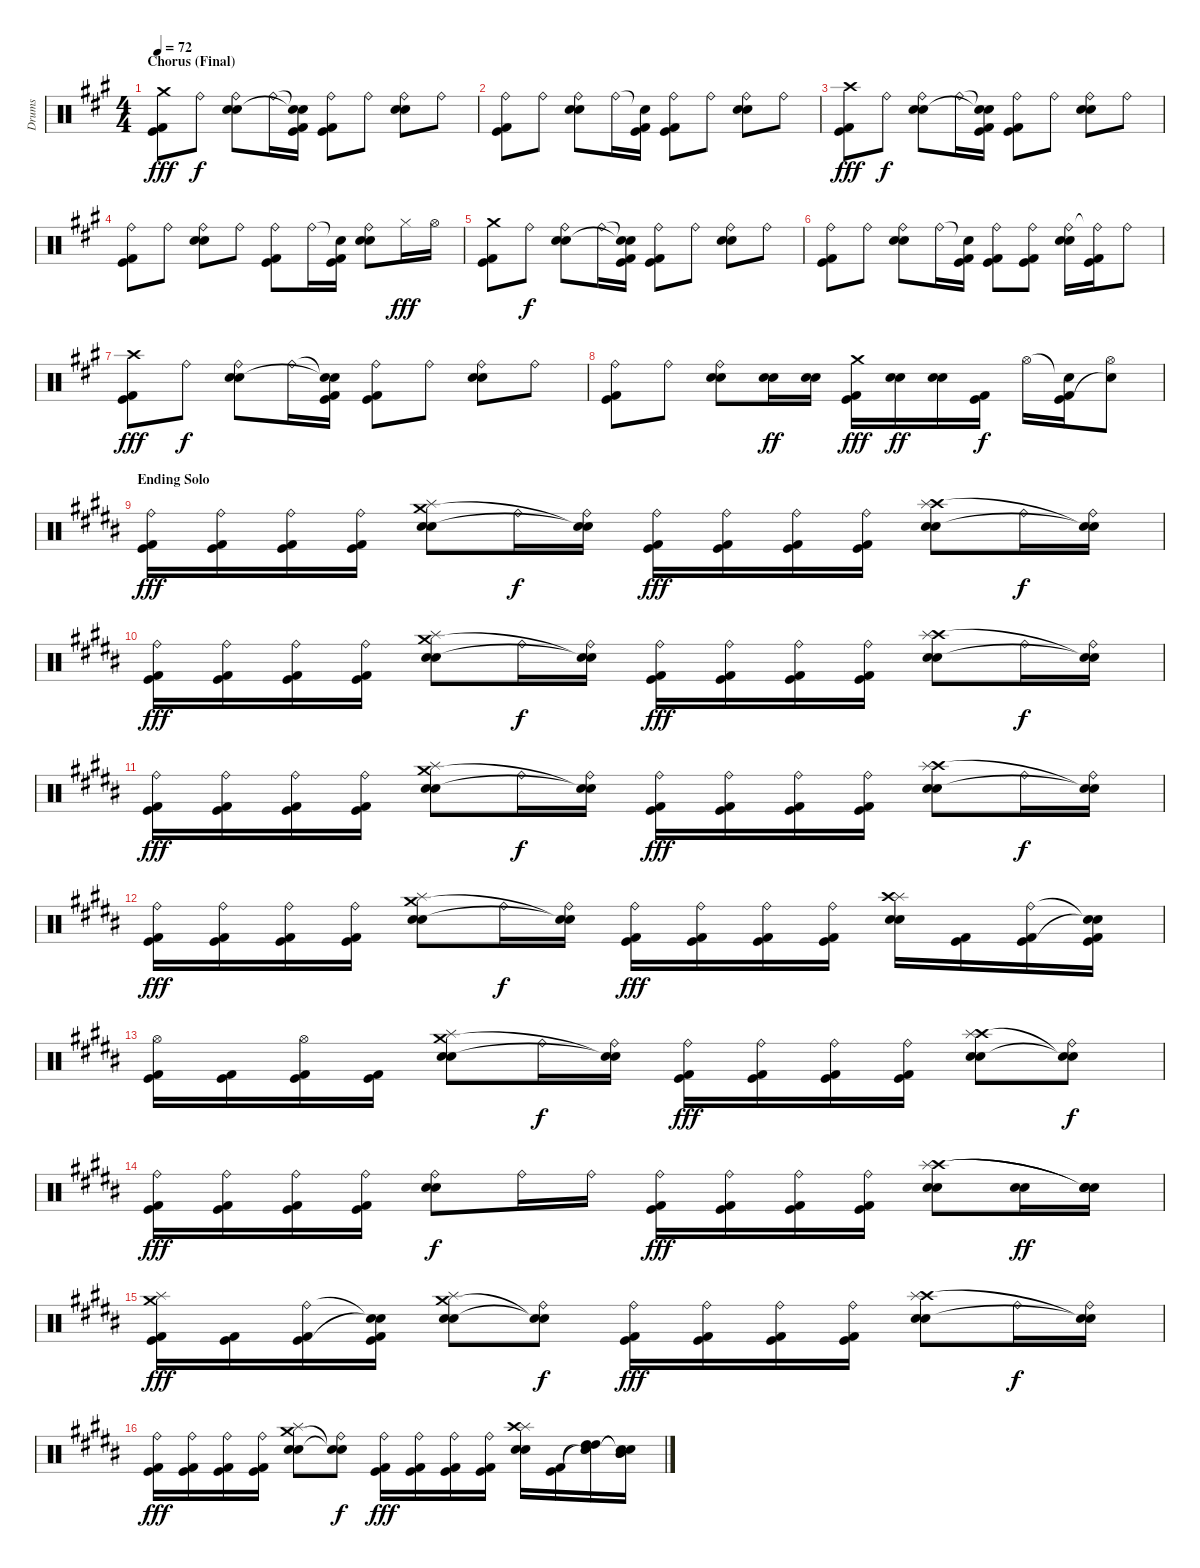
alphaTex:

\track ("Drums" "Drums") {instrument percussion}
\staff {score}
\articulation defaults
\ts (4 4)
\section ("" "Chorus (Final)")
\tempo 72
\clef neutral
\ks a
("Crash medium (hit)" "Kick (hit)" "Kick (hit) 2").8{dy fff} "Ride (bell)".8{dy f} ("Ride (bell)" "Electric Snare (hit)" "Snare (hit) 2").8 "Ride (bell)".16 ("Snare (hit)"{t} "Snare (hit)"{t} "Kick (hit)" "Kick (hit) 2").16 ("Ride (bell)" "Kick (hit)" "Kick (hit) 2").8 "Ride (bell)".8 ("Ride (bell)" "Electric Snare (hit)" "Snare (hit) 2").8 "Ride (bell)".8 |
("Ride (bell)" "Kick (hit)" "Kick (hit) 2").8 "Ride (bell)".8 ("Ride (bell)" "Electric Snare (hit)" "Snare (hit) 2").8 "Ride (bell)".16 ("Snare (hit)"{t} "Kick (hit)" "Kick (hit) 2").16 ("Ride (bell)" "Kick (hit)" "Kick (hit) 2").8 "Ride (bell)".8 ("Ride (bell)" "Electric Snare (hit)" "Snare (hit) 2").8 "Ride (bell)".8 |
("Crash high (hit)" "Kick (hit)" "Kick (hit) 2").8{dy fff} "Ride (bell)".8{dy f} ("Ride (bell)" "Electric Snare (hit)" "Snare (hit) 2").8 "Ride (bell)".16 ("Snare (hit)"{t} "Snare (hit)"{t} "Kick (hit)" "Kick (hit) 2").16 ("Ride (bell)" "Kick (hit)" "Kick (hit) 2").8 "Ride (bell)".8 ("Ride (bell)" "Electric Snare (hit)" "Snare (hit) 2").8 "Ride (bell)".8 |
("Ride (bell)" "Kick (hit)" "Kick (hit) 2").8 "Ride (bell)".8 ("Ride (bell)" "Electric Snare (hit)" "Snare (hit) 2").8 "Ride (bell)".8 ("Ride (bell)" "Kick (hit)" "Kick (hit) 2").8 "Ride (bell)".16 ("Snare (hit)"{t} "Kick (hit)" "Kick (hit) 2").16 ("Ride (bell)" "Electric Snare (hit)" "Snare (hit) 2").8 "Hi-Hat (closed)".16{dy fff} "Hi-Hat (open)".16 |
("Crash medium (hit)" "Kick (hit)" "Kick (hit) 2").8 "Ride (bell)".8{dy f} ("Ride (bell)" "Electric Snare (hit)" "Snare (hit) 2").8 "Ride (bell)".16 ("Snare (hit)"{t} "Snare (hit)"{t} "Kick (hit)" "Kick (hit) 2").16 ("Ride (bell)" "Kick (hit)" "Kick (hit) 2").8 "Ride (bell)".8 ("Ride (bell)" "Electric Snare (hit)" "Snare (hit) 2").8 "Ride (bell)".8 |
("Ride (bell)" "Kick (hit)" "Kick (hit) 2").8 "Ride (bell)".8 ("Ride (bell)" "Electric Snare (hit)" "Snare (hit) 2").8 "Ride (bell)".16 ("Snare (hit)"{t} "Kick (hit)" "Kick (hit) 2").16 ("Ride (bell)" "Kick (hit)" "Kick (hit) 2").8 ("Ride (bell)" "Kick (hit)" "Kick (hit) 2").8 ("Ride (bell)" "Electric Snare (hit)" "Snare (hit) 2").16 ("Ride (bell)"{t} "Kick (hit)" "Kick (hit) 2").16 "Ride (bell)".8 |
("Crash high (hit)" "Kick (hit)" "Kick (hit) 2").8{dy fff} "Ride (bell)".8{dy f} ("Ride (bell)" "Electric Snare (hit)" "Snare (hit) 2").8 "Ride (bell)".16 ("Snare (hit)"{t} "Snare (hit)"{t} "Kick (hit)" "Kick (hit) 2").16 ("Ride (bell)" "Kick (hit)" "Kick (hit) 2").8 "Ride (bell)".8 ("Ride (bell)" "Electric Snare (hit)" "Snare (hit) 2").8 "Ride (bell)".8 |
("Ride (bell)" "Kick (hit)" "Kick (hit) 2").8 "Ride (bell)".8 ("Ride (bell)" "Electric Snare (hit)" "Snare (hit) 2").8 ("Electric Snare (hit)" "Snare (hit) 2").16{dy ff} ("Electric Snare (hit)" "Snare (hit) 2").16 ("Crash medium (hit)" "Kick (hit)" "Kick (hit) 2").16{dy fff} ("Electric Snare (hit)" "Snare (hit) 2").16{dy ff} ("Electric Snare (hit)" "Snare (hit) 2").16 ("Kick (hit)" "Kick (hit) 2").16{dy f} "Hi-Hat (open)".16 ("Snare (hit)"{t} "Kick (hit)" "Kick (hit) 2").16 ("Hi-Hat (open)" "Snare (hit)"{t}).8 |
\section ("" "Ending Solo")
\ks b
("Ride (bell)" "Kick (hit)" "Kick (hit) 2").16{dy fff} ("Ride (bell)" "Kick (hit)" "Kick (hit) 2").16 ("Ride (bell)" "Kick (hit)" "Kick (hit) 2").16 ("Ride (bell)" "Kick (hit)" "Kick (hit) 2").16 ("Electric Snare (hit)" "Snare (hit) 2" "Crash medium (hit)" "Splash (hit)").8 "Ride (bell)".16{dy f} ("Ride (bell)" "Snare (hit)"{t} "Snare (hit)"{t}).16 ("Ride (bell)" "Kick (hit)" "Kick (hit) 2").16{dy fff} ("Ride (bell)" "Kick (hit)" "Kick (hit) 2").16 ("Ride (bell)" "Kick (hit)" "Kick (hit) 2").16 ("Ride (bell)" "Kick (hit)" "Kick (hit) 2").16 ("Electric Snare (hit)" "Snare (hit) 2" "Crash high (hit)" "Splash (hit)").8 "Ride (bell)".16{dy f} ("Ride (bell)" "Snare (hit)"{t} "Snare (hit)"{t}).16 |
("Ride (bell)" "Kick (hit)" "Kick (hit) 2").16{dy fff} ("Ride (bell)" "Kick (hit)" "Kick (hit) 2").16 ("Ride (bell)" "Kick (hit)" "Kick (hit) 2").16 ("Ride (bell)" "Kick (hit)" "Kick (hit) 2").16 ("Electric Snare (hit)" "Snare (hit) 2" "Crash medium (hit)" "Splash (hit)").8 "Ride (bell)".16{dy f} ("Ride (bell)" "Snare (hit)"{t} "Snare (hit)"{t}).16 ("Ride (bell)" "Kick (hit)" "Kick (hit) 2").16{dy fff} ("Ride (bell)" "Kick (hit)" "Kick (hit) 2").16 ("Ride (bell)" "Kick (hit)" "Kick (hit) 2").16 ("Ride (bell)" "Kick (hit)" "Kick (hit) 2").16 ("Electric Snare (hit)" "Snare (hit) 2" "Crash high (hit)" "Splash (hit)").8 "Ride (bell)".16{dy f} ("Ride (bell)" "Snare (hit)"{t} "Snare (hit)"{t}).16 |
("Ride (bell)" "Kick (hit)" "Kick (hit) 2").16{dy fff} ("Ride (bell)" "Kick (hit)" "Kick (hit) 2").16 ("Ride (bell)" "Kick (hit)" "Kick (hit) 2").16 ("Ride (bell)" "Kick (hit)" "Kick (hit) 2").16 ("Electric Snare (hit)" "Snare (hit) 2" "Crash medium (hit)" "Splash (hit)").8 "Ride (bell)".16{dy f} ("Ride (bell)" "Snare (hit)"{t} "Snare (hit)"{t}).16 ("Ride (bell)" "Kick (hit)" "Kick (hit) 2").16{dy fff} ("Ride (bell)" "Kick (hit)" "Kick (hit) 2").16 ("Ride (bell)" "Kick (hit)" "Kick (hit) 2").16 ("Ride (bell)" "Kick (hit)" "Kick (hit) 2").16 ("Electric Snare (hit)" "Snare (hit) 2" "Crash high (hit)" "Splash (hit)").8 "Ride (bell)".16{dy f} ("Ride (bell)" "Snare (hit)"{t} "Snare (hit)"{t}).16 |
("Ride (bell)" "Kick (hit)" "Kick (hit) 2").16{dy fff} ("Ride (bell)" "Kick (hit)" "Kick (hit) 2").16 ("Ride (bell)" "Kick (hit)" "Kick (hit) 2").16 ("Ride (bell)" "Kick (hit)" "Kick (hit) 2").16 ("Electric Snare (hit)" "Snare (hit) 2" "Crash medium (hit)" "Splash (hit)").8 "Ride (bell)".16{dy f} ("Ride (bell)" "Snare (hit)"{t} "Snare (hit)"{t}).16 ("Ride (bell)" "Kick (hit)" "Kick (hit) 2").16{dy fff} ("Ride (bell)" "Kick (hit)" "Kick (hit) 2").16 ("Ride (bell)" "Kick (hit)" "Kick (hit) 2").16 ("Ride (bell)" "Kick (hit)" "Kick (hit) 2").16 ("Electric Snare (hit)" "Snare (hit) 2" "Splash (hit)" "Crash high (hit)").16 ("Kick (hit)" "Kick (hit) 2").16 ("Ride (bell)" "Kick (hit)" "Kick (hit) 2").16 ("Snare (hit)"{t} "Snare (hit)"{t} "Kick (hit)" "Kick (hit) 2").16 |
("Hi-Hat (open)" "Kick (hit)" "Kick (hit) 2").16 ("Kick (hit)" "Kick (hit) 2").16 ("Hi-Hat (open)" "Kick (hit)" "Kick (hit) 2").16 ("Kick (hit)" "Kick (hit) 2").16 ("Electric Snare (hit)" "Snare (hit) 2" "Crash medium (hit)" "Splash (hit)").8 "Ride (bell)".16{dy f} ("Ride (bell)" "Snare (hit)"{t} "Snare (hit)"{t}).16 ("Ride (bell)" "Kick (hit)" "Kick (hit) 2").16{dy fff} ("Ride (bell)" "Kick (hit)" "Kick (hit) 2").16 ("Ride (bell)" "Kick (hit)" "Kick (hit) 2").16 ("Ride (bell)" "Kick (hit)" "Kick (hit) 2").16 ("Electric Snare (hit)" "Snare (hit) 2" "Crash high (hit)" "Splash (hit)").8 ("Ride (bell)" "Snare (hit)"{t} "Snare (hit)"{t}).8{dy f} |
("Ride (bell)" "Kick (hit)" "Kick (hit) 2").16{dy fff} ("Ride (bell)" "Kick (hit)" "Kick (hit) 2").16 ("Ride (bell)" "Kick (hit)" "Kick (hit) 2").16 ("Ride (bell)" "Kick (hit)" "Kick (hit) 2").16 ("Ride (bell)" "Electric Snare (hit)" "Snare (hit) 2").8{dy f} "Ride (bell)".16 "Ride (bell)".16 ("Ride (bell)" "Kick (hit)" "Kick (hit) 2").16{dy fff} ("Ride (bell)" "Kick (hit)" "Kick (hit) 2").16 ("Ride (bell)" "Kick (hit)" "Kick (hit) 2").16 ("Ride (bell)" "Kick (hit)" "Kick (hit) 2").16 ("Electric Snare (hit)" "Snare (hit) 2" "Crash high (hit)" "Splash (hit)").8 ("Electric Snare (hit)" "Snare (hit) 2").16{dy ff} ("Electric Snare (hit)" "Snare (hit) 2" "Snare (hit)"{t} "Snare (hit)"{t}).16 |
("Splash (hit)" "Crash medium (hit)" "Kick (hit)" "Kick (hit) 2").16{dy fff} ("Kick (hit)" "Kick (hit) 2").16 ("Ride (bell)" "Kick (hit)" "Kick (hit) 2").16 ("Snare (hit)"{t} "Snare (hit)"{t} "Kick (hit)" "Kick (hit) 2").16 ("Electric Snare (hit)" "Snare (hit) 2" "Crash medium (hit)" "Splash (hit)").8 ("Ride (bell)" "Snare (hit)"{t} "Snare (hit)"{t}).8{dy f} ("Ride (bell)" "Kick (hit)" "Kick (hit) 2").16{dy fff} ("Ride (bell)" "Kick (hit)" "Kick (hit) 2").16 ("Ride (bell)" "Kick (hit)" "Kick (hit) 2").16 ("Ride (bell)" "Kick (hit)" "Kick (hit) 2").16 ("Electric Snare (hit)" "Snare (hit) 2" "Crash high (hit)" "Splash (hit)").8 "Ride (bell)".16{dy f} ("Ride (bell)" "Snare (hit)"{t} "Snare (hit)"{t}).16 |
("Ride (bell)" "Kick (hit)" "Kick (hit) 2").16{dy fff} ("Ride (bell)" "Kick (hit)" "Kick (hit) 2").16 ("Ride (bell)" "Kick (hit)" "Kick (hit) 2").16 ("Ride (bell)" "Kick (hit)" "Kick (hit) 2").16 ("Electric Snare (hit)" "Snare (hit) 2" "Crash medium (hit)" "Splash (hit)").8 ("Ride (bell)" "Snare (hit)"{t} "Snare (hit)"{t}).8{dy f} ("Ride (bell)" "Kick (hit)" "Kick (hit) 2").16{dy fff} ("Ride (bell)" "Kick (hit)" "Kick (hit) 2").16 ("Ride (bell)" "Kick (hit)" "Kick (hit) 2").16 ("Ride (bell)" "Kick (hit)" "Kick (hit) 2").16 ("Electric Snare (hit)" "Snare (hit) 2" "Splash (hit)" "Crash high (hit)").16 ("Kick (hit)" "Kick (hit) 2").16 ("Snare (hit)"{t} "Snare (hit)"{t} "High Tom (hit)" "High Tom (hit)").16 ("Snare (hit)"{t} "Snare (hit)"{t} "Mid Tom (hit)" "Mid Tom (hit)").16
